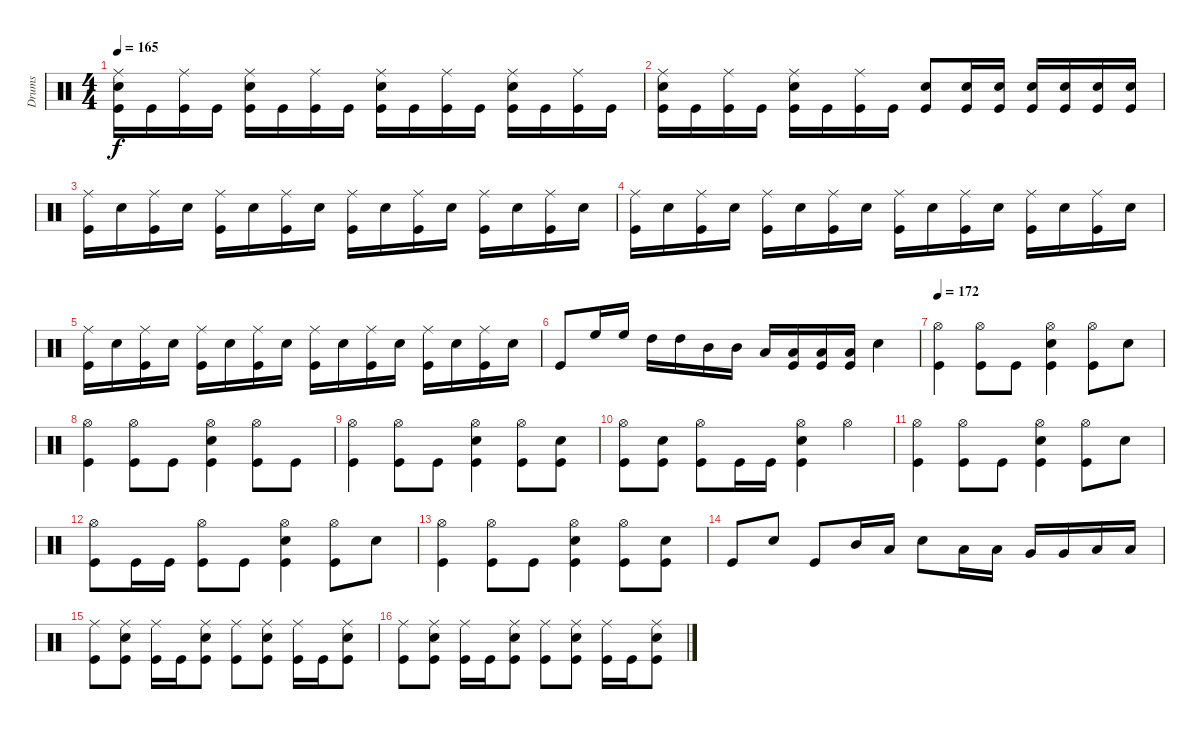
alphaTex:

\track ("Drums" "Drums") {instrument percussion}
\staff {score}
\articulation defaults
\ts (4 4)
\tempo 165
\clef neutral
\ks c
("Kick (hit)" "Snare (hit) 2" "Ride (middle)").16{dy f} "Kick (hit)".16 ("Kick (hit)" "Ride (middle)").16 "Kick (hit)".16 ("Kick (hit)" "Snare (hit) 2" "Ride (middle)").16 "Kick (hit)".16 ("Kick (hit)" "Ride (middle)").16 "Kick (hit)".16 ("Kick (hit)" "Snare (hit) 2" "Ride (middle)").16 "Kick (hit)".16 ("Kick (hit)" "Ride (middle)").16 "Kick (hit)".16 ("Kick (hit)" "Snare (hit) 2" "Ride (middle)").16 "Kick (hit)".16 ("Kick (hit)" "Ride (middle)").16 "Kick (hit)".16 |
("Kick (hit)" "Snare (hit) 2" "Ride (middle)").16 "Kick (hit)".16 ("Kick (hit)" "Ride (middle)").16 "Kick (hit)".16 ("Kick (hit)" "Snare (hit) 2" "Ride (middle)").16 "Kick (hit)".16 ("Kick (hit)" "Ride (middle)").16 "Kick (hit)".16 ("Snare (hit) 2" "Kick (hit)").8 ("Snare (hit) 2" "Kick (hit)").16 ("Snare (hit) 2" "Kick (hit)").16 ("Snare (hit) 2" "Kick (hit)").16 ("Snare (hit) 2" "Kick (hit)").16 ("Snare (hit) 2" "Kick (hit)").16 ("Snare (hit) 2" "Kick (hit)").16 |
("Kick (hit)" "Ride (middle)").16 "Snare (hit) 2".16 ("Kick (hit)" "Ride (middle)").16 "Snare (hit) 2".16 ("Kick (hit)" "Ride (middle)").16 "Snare (hit) 2".16 ("Kick (hit)" "Ride (middle)").16 "Snare (hit) 2".16 ("Kick (hit)" "Ride (middle)").16 "Snare (hit) 2".16 ("Kick (hit)" "Ride (middle)").16 "Snare (hit) 2".16 ("Kick (hit)" "Ride (middle)").16 "Snare (hit) 2".16 ("Kick (hit)" "Ride (middle)").16 "Snare (hit) 2".16 |
("Kick (hit)" "Ride (middle)").16 "Snare (hit) 2".16 ("Kick (hit)" "Ride (middle)").16 "Snare (hit) 2".16 ("Kick (hit)" "Ride (middle)").16 "Snare (hit) 2".16 ("Kick (hit)" "Ride (middle)").16 "Snare (hit) 2".16 ("Kick (hit)" "Ride (middle)").16 "Snare (hit) 2".16 ("Kick (hit)" "Ride (middle)").16 "Snare (hit) 2".16 ("Kick (hit)" "Ride (middle)").16 "Snare (hit) 2".16 ("Kick (hit)" "Ride (middle)").16 "Snare (hit) 2".16 |
("Kick (hit)" "Ride (middle)").16 "Snare (hit) 2".16 ("Kick (hit)" "Ride (middle)").16 "Snare (hit) 2".16 ("Kick (hit)" "Ride (middle)").16 "Snare (hit) 2".16 ("Kick (hit)" "Ride (middle)").16 "Snare (hit) 2".16 ("Kick (hit)" "Ride (middle)").16 "Snare (hit) 2".16 ("Kick (hit)" "Ride (middle)").16 "Snare (hit) 2".16 ("Kick (hit)" "Ride (middle)").16 "Snare (hit) 2".16 ("Kick (hit)" "Ride (middle)").16 "Snare (hit) 2".16 |
"Kick (hit)".8 "High Floor Tom (hit)".16 "High Floor Tom (hit)".16 "High Tom (hit)".16 "High Tom (hit)".16 "Mid Tom (hit)".16 "Mid Tom (hit)".16 "Low Tom (hit)".16 ("Low Tom (hit)" "Kick (hit)").16 ("Low Tom (hit)" "Kick (hit)").16 ("Low Tom (hit)" "Kick (hit)").16 "Snare (hit) 2".4 |
\tempo 172
("Kick (hit)" "Hi-Hat (open)").4 ("Kick (hit)" "Hi-Hat (open)").8 "Kick (hit)".8 ("Kick (hit)" "Snare (hit) 2" "Hi-Hat (open)").4 ("Kick (hit)" "Hi-Hat (open)").8 "Snare (hit) 2".8 |
("Kick (hit)" "Hi-Hat (open)").4 ("Kick (hit)" "Hi-Hat (open)").8 "Kick (hit)".8 ("Kick (hit)" "Snare (hit) 2" "Hi-Hat (open)").4 ("Kick (hit)" "Hi-Hat (open)").8 "Kick (hit)".8 |
("Kick (hit)" "Hi-Hat (open)").4 ("Kick (hit)" "Hi-Hat (open)").8 "Kick (hit)".8 ("Kick (hit)" "Snare (hit) 2" "Hi-Hat (open)").4 ("Kick (hit)" "Hi-Hat (open)").8 ("Snare (hit) 2" "Kick (hit)").8 |
("Kick (hit)" "Hi-Hat (open)").8 ("Kick (hit)" "Snare (hit) 2").8 ("Kick (hit)" "Hi-Hat (open)").8 "Kick (hit)".16 "Kick (hit)".16 ("Kick (hit)" "Snare (hit) 2" "Hi-Hat (open)").4 "Hi-Hat (open)".4 |
("Kick (hit)" "Hi-Hat (open)").4 ("Kick (hit)" "Hi-Hat (open)").8 "Kick (hit)".8 ("Kick (hit)" "Snare (hit) 2" "Hi-Hat (open)").4 ("Kick (hit)" "Hi-Hat (open)").8 "Snare (hit) 2".8 |
("Kick (hit)" "Hi-Hat (open)").8 "Kick (hit)".16 "Kick (hit)".16 ("Kick (hit)" "Hi-Hat (open)").8 "Kick (hit)".8 ("Kick (hit)" "Snare (hit) 2" "Hi-Hat (open)").4 ("Kick (hit)" "Hi-Hat (open)").8 "Snare (hit) 2".8 |
("Kick (hit)" "Hi-Hat (open)").4 ("Kick (hit)" "Hi-Hat (open)").8 "Kick (hit)".8 ("Kick (hit)" "Snare (hit) 2" "Hi-Hat (open)").4 ("Kick (hit)" "Hi-Hat (open)").8 ("Snare (hit) 2" "Kick (hit)").8 |
"Kick (hit)".8 "Snare (hit) 2".8 "Kick (hit)".8 "Mid Tom (hit)".16 "Low Tom (hit)".16 "Snare (hit) 2".8 "Low Tom (hit)".16 "Low Tom (hit)".16 "Very Low Tom (hit)".16 "Very Low Tom (hit)".16 "Low Floor Tom (hit)".16 "Low Floor Tom (hit)".16 |
("Kick (hit)" "Ride (middle)").8 ("Kick (hit)" "Snare (hit) 2" "Ride (middle)").8 ("Kick (hit)" "Ride (middle)").16 "Kick (hit)".16 ("Kick (hit)" "Snare (hit) 2" "Ride (middle)").8 ("Kick (hit)" "Ride (middle)").8 ("Kick (hit)" "Snare (hit) 2" "Ride (middle)").8 ("Kick (hit)" "Ride (middle)").16 "Kick (hit)".16 ("Kick (hit)" "Snare (hit) 2" "Ride (middle)").8 |
("Kick (hit)" "Ride (middle)").8 ("Kick (hit)" "Snare (hit) 2" "Ride (middle)").8 ("Kick (hit)" "Ride (middle)").16 "Kick (hit)".16 ("Kick (hit)" "Snare (hit) 2" "Ride (middle)").8 ("Kick (hit)" "Ride (middle)").8 ("Kick (hit)" "Snare (hit) 2" "Ride (middle)").8 ("Kick (hit)" "Ride (middle)").16 "Kick (hit)".16 ("Kick (hit)" "Snare (hit) 2" "Ride (middle)").8
